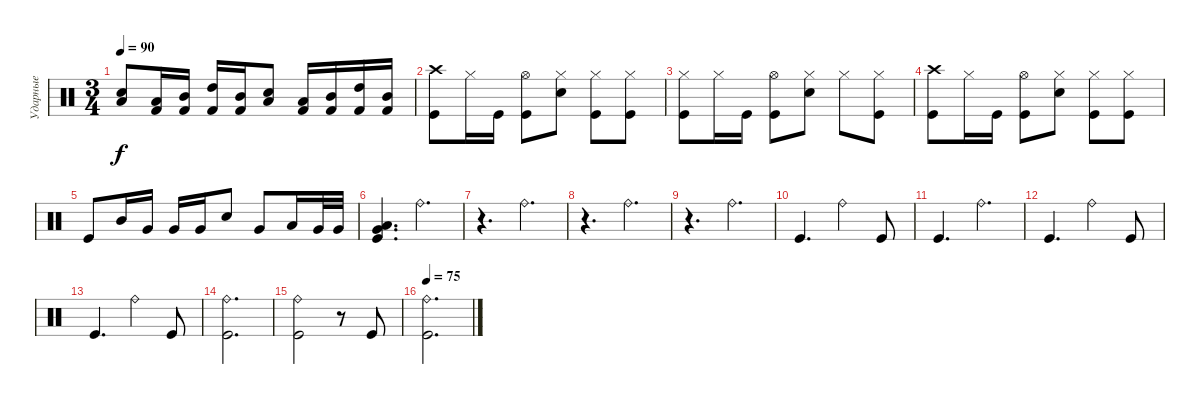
\track ("Ударные" "Ударные") {instrument percussion}
\staff {score}
\articulation defaults
\ts (3 4)
\tempo 90
\clef neutral
\ks c
("Low Floor Tom (hit)" "Electric Snare (hit)").8{dy f} ("Low Tom (hit)" "Kick (hit) 2").16 ("Mid Tom (hit)" "Kick (hit) 2").16 ("High Tom (hit)" "Kick (hit) 2").16 ("Mid Tom (hit)" "Kick (hit) 2").16 ("Low Floor Tom (hit)" "Electric Snare (hit)").8 ("Low Tom (hit)" "Kick (hit) 2").16 ("Mid Tom (hit)" "Kick (hit) 2").16 ("High Tom (hit)" "Kick (hit) 2").16 ("Mid Tom (hit)" "Kick (hit) 2").16 |
("Crash high (hit)" "Kick (hit)").8 "Hi-Hat (closed)".16 "Kick (hit)".16 ("Hi-Hat (open)" "Kick (hit)").8 ("Hi-Hat (closed)" "Electric Snare (hit)").8 ("Hi-Hat (closed)" "Kick (hit)").8 ("Hi-Hat (closed)" "Kick (hit)").8 |
("Hi-Hat (closed)" "Kick (hit)").8 "Hi-Hat (closed)".16 "Kick (hit)".16 ("Hi-Hat (open)" "Kick (hit)").8 ("Hi-Hat (closed)" "Electric Snare (hit)").8 "Hi-Hat (closed)".8 ("Hi-Hat (closed)" "Kick (hit)").8 |
("Crash high (hit)" "Kick (hit)").8 "Hi-Hat (closed)".16 "Kick (hit)".16 ("Hi-Hat (open)" "Kick (hit)").8 ("Hi-Hat (closed)" "Electric Snare (hit)").8 ("Hi-Hat (closed)" "Kick (hit)").8 ("Hi-Hat (closed)" "Kick (hit)").8 |
"Kick (hit)".8 "Mid Tom (hit)".16 "Very Low Tom (hit)".16 "Very Low Tom (hit)".16 "Very Low Tom (hit)".16 "Electric Snare (hit)".8 "Very Low Tom (hit)".8 "Low Tom (hit)".16 "Very Low Tom (hit)".32 "Very Low Tom (hit)".32 |
("Very Low Tom (hit)" "Low Tom (hit)" "Kick (hit)").4{d} "Ride (bell)".4{d} |
r.4{d} "Ride (bell)".4{d} |
r.4{d} "Ride (bell)".4{d} |
r.4{d} "Ride (bell)".4{d} |
"Kick (hit)".4{d} "Ride (bell)".4 "Kick (hit)".8 |
"Kick (hit)".4{d} "Ride (bell)".4{d} |
"Kick (hit)".4{d} "Ride (bell)".4 "Kick (hit)".8 |
"Kick (hit)".4{d} "Ride (bell)".4 "Kick (hit)".8 |
("Ride (bell)" "Kick (hit)").2{d} |
("Ride (bell)" "Kick (hit)").2 r.8 "Kick (hit)".8 |
\tempo 75
("Ride (bell)" "Kick (hit)").2{d}
